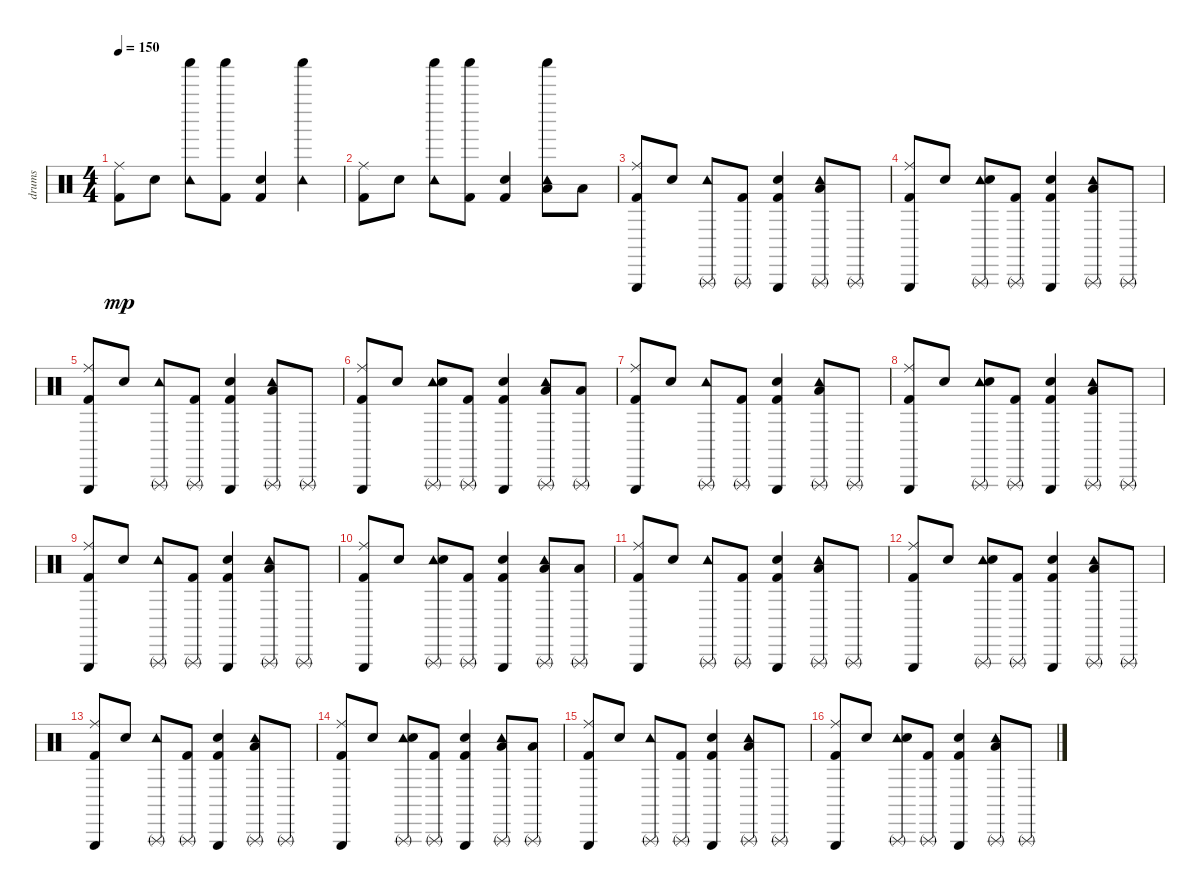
\track ("drums" "drums") {instrument percussion}
\staff {score}
\articulation defaults
\ts (4 4)
\tempo 150
\clef neutral
\ks c
("Ride (middle)" "Kick (hit) 2").8{dy mp} "Snare (hit) 2".8 ("Shaker (hit)" "Tambourine (hit)").8 ("Shaker (hit)" "Kick (hit) 2").8 ("Kick (hit) 2" "Snare (hit) 2").4 ("Tambourine (hit)" "Shaker (hit)").4 |
("Ride (middle)" "Kick (hit) 2").8 "Snare (hit) 2".8 ("Shaker (hit)" "Tambourine (hit)").8 ("Shaker (hit)" "Kick (hit) 2").8 ("Kick (hit) 2" "Snare (hit) 2").4 ("Tambourine (hit)" "Shaker (hit)" "Low Tom (hit)").8 "Low Tom (hit)".8 |
("Triangle (hit)" "Ride (middle)" "Kick (hit) 2").8 "Snare (hit) 2".8 ("Triangle (rnute)" "Tambourine (hit)").8 ("Triangle (rnute)" "Kick (hit) 2").8 ("Triangle (hit)" "Kick (hit) 2" "Snare (hit) 2").4 ("Tambourine (hit)" "Low Tom (hit)" "Triangle (rnute)").8 "Triangle (rnute)".8 |
("Triangle (hit)" "Ride (middle)" "Kick (hit) 2").8 "Snare (hit) 2".8 ("Triangle (rnute)" "Tambourine (hit)" "Snare (hit) 2").8 ("Triangle (rnute)" "Kick (hit) 2").8 ("Triangle (hit)" "Kick (hit) 2" "Snare (hit) 2").4 ("Tambourine (hit)" "Low Tom (hit)" "Triangle (rnute)").8 "Triangle (rnute)".8 |
("Triangle (hit)" "Ride (middle)" "Kick (hit) 2").8 "Snare (hit) 2".8 ("Triangle (rnute)" "Tambourine (hit)").8 ("Triangle (rnute)" "Kick (hit) 2").8 ("Triangle (hit)" "Kick (hit) 2" "Snare (hit) 2").4 ("Tambourine (hit)" "Low Tom (hit)" "Triangle (rnute)").8 "Triangle (rnute)".8 |
("Triangle (hit)" "Ride (middle)" "Kick (hit) 2").8 "Snare (hit) 2".8 ("Triangle (rnute)" "Tambourine (hit)" "Snare (hit) 2").8 ("Triangle (rnute)" "Kick (hit) 2").8 ("Triangle (hit)" "Kick (hit) 2" "Snare (hit) 2").4 ("Tambourine (hit)" "Triangle (rnute)" "Low Tom (hit)").8 ("Low Tom (hit)" "Triangle (rnute)").8 |
("Triangle (hit)" "Ride (middle)" "Kick (hit) 2").8 "Snare (hit) 2".8 ("Triangle (rnute)" "Tambourine (hit)").8 ("Triangle (rnute)" "Kick (hit) 2").8 ("Triangle (hit)" "Kick (hit) 2" "Snare (hit) 2").4 ("Tambourine (hit)" "Low Tom (hit)" "Triangle (rnute)").8 "Triangle (rnute)".8 |
("Triangle (hit)" "Ride (middle)" "Kick (hit) 2").8 "Snare (hit) 2".8 ("Triangle (rnute)" "Tambourine (hit)" "Snare (hit) 2").8 ("Triangle (rnute)" "Kick (hit) 2").8 ("Triangle (hit)" "Kick (hit) 2" "Snare (hit) 2").4 ("Tambourine (hit)" "Low Tom (hit)" "Triangle (rnute)").8 "Triangle (rnute)".8 |
("Triangle (hit)" "Ride (middle)" "Kick (hit) 2").8 "Snare (hit) 2".8 ("Triangle (rnute)" "Tambourine (hit)").8 ("Triangle (rnute)" "Kick (hit) 2").8 ("Triangle (hit)" "Kick (hit) 2" "Snare (hit) 2").4 ("Tambourine (hit)" "Low Tom (hit)" "Triangle (rnute)").8 "Triangle (rnute)".8 |
("Triangle (hit)" "Ride (middle)" "Kick (hit) 2").8 "Snare (hit) 2".8 ("Triangle (rnute)" "Tambourine (hit)" "Snare (hit) 2").8 ("Triangle (rnute)" "Kick (hit) 2").8 ("Triangle (hit)" "Kick (hit) 2" "Snare (hit) 2").4 ("Tambourine (hit)" "Triangle (rnute)" "Low Tom (hit)").8 ("Low Tom (hit)" "Triangle (rnute)").8 |
("Triangle (hit)" "Ride (middle)" "Kick (hit) 2").8 "Snare (hit) 2".8 ("Triangle (rnute)" "Tambourine (hit)").8 ("Triangle (rnute)" "Kick (hit) 2").8 ("Triangle (hit)" "Kick (hit) 2" "Snare (hit) 2").4 ("Tambourine (hit)" "Low Tom (hit)" "Triangle (rnute)").8 "Triangle (rnute)".8 |
("Triangle (hit)" "Ride (middle)" "Kick (hit) 2").8 "Snare (hit) 2".8 ("Triangle (rnute)" "Tambourine (hit)" "Snare (hit) 2").8 ("Triangle (rnute)" "Kick (hit) 2").8 ("Triangle (hit)" "Kick (hit) 2" "Snare (hit) 2").4 ("Tambourine (hit)" "Low Tom (hit)" "Triangle (rnute)").8 "Triangle (rnute)".8 |
("Triangle (hit)" "Ride (middle)" "Kick (hit) 2").8 "Snare (hit) 2".8 ("Triangle (rnute)" "Tambourine (hit)").8 ("Triangle (rnute)" "Kick (hit) 2").8 ("Triangle (hit)" "Kick (hit) 2" "Snare (hit) 2").4 ("Tambourine (hit)" "Low Tom (hit)" "Triangle (rnute)").8 "Triangle (rnute)".8 |
("Triangle (hit)" "Ride (middle)" "Kick (hit) 2").8 "Snare (hit) 2".8 ("Triangle (rnute)" "Tambourine (hit)" "Snare (hit) 2").8 ("Triangle (rnute)" "Kick (hit) 2").8 ("Triangle (hit)" "Kick (hit) 2" "Snare (hit) 2").4 ("Tambourine (hit)" "Triangle (rnute)" "Low Tom (hit)").8 ("Low Tom (hit)" "Triangle (rnute)").8 |
("Triangle (hit)" "Ride (middle)" "Kick (hit) 2").8 "Snare (hit) 2".8 ("Triangle (rnute)" "Tambourine (hit)").8 ("Triangle (rnute)" "Kick (hit) 2").8 ("Triangle (hit)" "Kick (hit) 2" "Snare (hit) 2").4 ("Tambourine (hit)" "Low Tom (hit)" "Triangle (rnute)").8 "Triangle (rnute)".8 |
("Triangle (hit)" "Ride (middle)" "Kick (hit) 2").8 "Snare (hit) 2".8 ("Triangle (rnute)" "Tambourine (hit)" "Snare (hit) 2").8 ("Triangle (rnute)" "Kick (hit) 2").8 ("Triangle (hit)" "Kick (hit) 2" "Snare (hit) 2").4 ("Tambourine (hit)" "Low Tom (hit)" "Triangle (rnute)").8 "Triangle (rnute)".8
